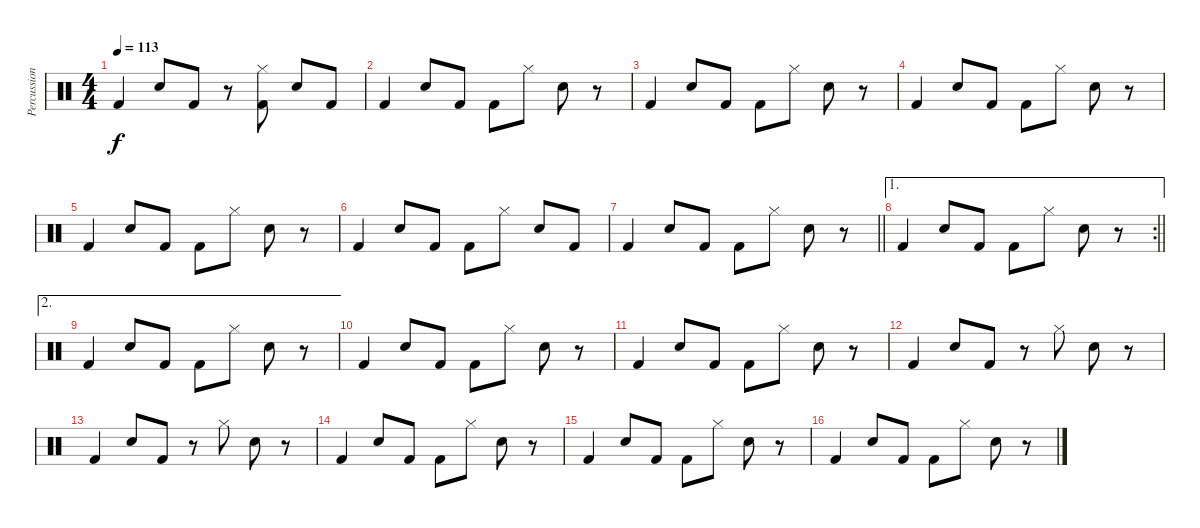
\track ("Percussion" "Percussion") {instrument percussion}
\staff {score}
\articulation defaults
\ts (4 4)
\tempo 113
\clef neutral
\ks c "Kick (hit) 2".4{dy f} "Snare (hit) 2".8 "Kick (hit) 2".8
r.8 ("Hi-Hat (closed)" "Kick (hit) 2").8 "Snare (hit) 2".8 "Kick (hit) 2".8 |
"Kick (hit) 2".4 "Snare (hit) 2".8 "Kick (hit) 2".8 "Kick (hit) 2".8 "Hi-Hat (closed)".8 "Snare (hit) 2".8 r.8 |
"Kick (hit) 2".4 "Snare (hit) 2".8 "Kick (hit) 2".8 "Kick (hit) 2".8 "Hi-Hat (closed)".8 "Snare (hit) 2".8 r.8 |
"Kick (hit) 2".4 "Snare (hit) 2".8 "Kick (hit) 2".8 "Kick (hit) 2".8 "Hi-Hat (closed)".8 "Snare (hit) 2".8 r.8 |
"Kick (hit) 2".4 "Snare (hit) 2".8 "Kick (hit) 2".8 "Kick (hit) 2".8 "Hi-Hat (closed)".8 "Snare (hit) 2".8 r.8 |
"Kick (hit) 2".4 "Snare (hit) 2".8 "Kick (hit) 2".8 "Kick (hit) 2".8 "Hi-Hat (closed)".8 "Snare (hit) 2".8 "Kick (hit) 2".8 |
\barLineRight lightlight "Kick (hit) 2".4 "Snare (hit) 2".8 "Kick (hit) 2".8 "Kick (hit) 2".8 "Hi-Hat (closed)".8 "Snare (hit) 2".8
r.8 |
\ae 1
\rc 2
\barLineRight lightlight "Kick (hit) 2".4 "Snare (hit) 2".8 "Kick (hit) 2".8 "Kick (hit) 2".8 "Hi-Hat (closed)".8 "Snare (hit) 2".8
r.8 |
\ae 2 "Kick (hit) 2".4 "Snare (hit) 2".8 "Kick (hit) 2".8 "Kick (hit) 2".8 "Hi-Hat (closed)".8 "Snare (hit) 2".8
r.8 |
"Kick (hit) 2".4 "Snare (hit) 2".8 "Kick (hit) 2".8 "Kick (hit) 2".8 "Hi-Hat (closed)".8 "Snare (hit) 2".8 r.8 |
"Kick (hit) 2".4 "Snare (hit) 2".8 "Kick (hit) 2".8 "Kick (hit) 2".8 "Hi-Hat (closed)".8 "Snare (hit) 2".8 r.8 |
"Kick (hit) 2".4 "Snare (hit) 2".8 "Kick (hit) 2".8 r.8 "Hi-Hat (closed)".8 "Snare (hit) 2".8 r.8 |
"Kick (hit) 2".4 "Snare (hit) 2".8 "Kick (hit) 2".8 r.8 "Hi-Hat (closed)".8 "Snare (hit) 2".8 r.8 |
"Kick (hit) 2".4 "Snare (hit) 2".8 "Kick (hit) 2".8 "Kick (hit) 2".8 "Hi-Hat (closed)".8 "Snare (hit) 2".8 r.8 |
"Kick (hit) 2".4 "Snare (hit) 2".8 "Kick (hit) 2".8 "Kick (hit) 2".8 "Hi-Hat (closed)".8 "Snare (hit) 2".8 r.8 |
"Kick (hit) 2".4 "Snare (hit) 2".8 "Kick (hit) 2".8 "Kick (hit) 2".8 "Hi-Hat (closed)".8 "Snare (hit) 2".8 r.8
